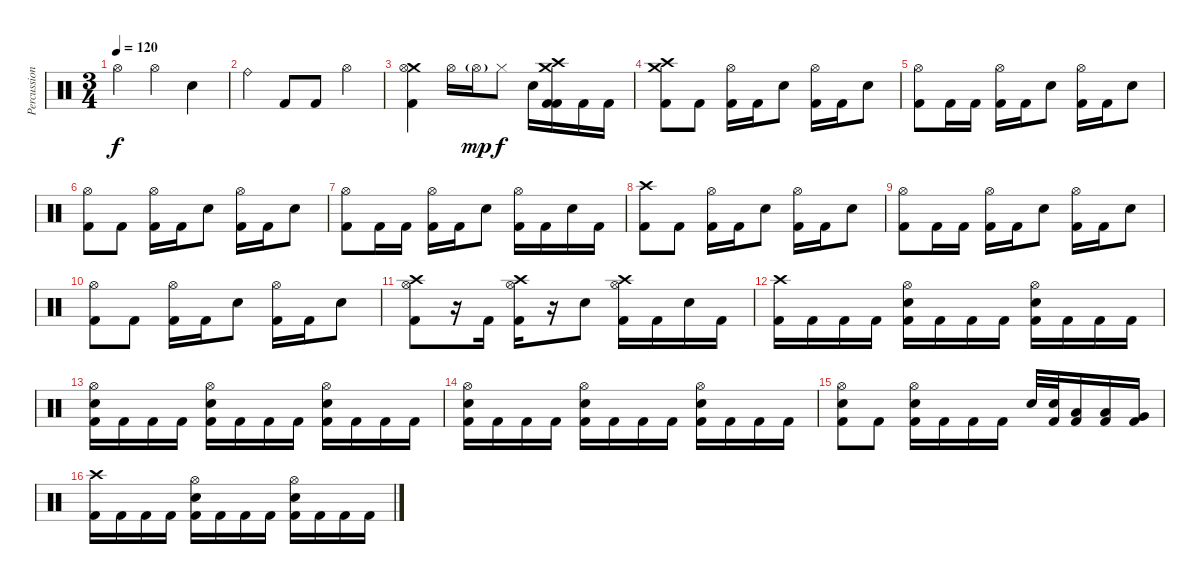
\track ("Percussion" "Percussion") {instrument percussion}
\staff {score}
\articulation defaults
\ts (3 4)
\tempo 120
\clef neutral
\ks c "Hi-Hat (open)"{t}.4{dy f} "Hi-Hat (open)".4 "Electric Snare (hit)".4
|
"Ride (bell)".4 "Kick (hit) 2".8 "Kick (hit) 2".8 "Hi-Hat (open)".4 |
("Crash medium (hit)" "Hi-Hat (open)"{t} "Kick (hit) 2").4 "Hi-Hat (open)".16 "Hi-Hat (open)"{g}.16{dy mp} "Hi-Hat (closed)".8{dy f} "Electric Snare (hit)".16 ("Crash high (hit)" "Crash medium (hit)" "Kick (hit) 2" "Kick (hit) 2").16 "Kick (hit) 2".16 "Kick (hit) 2".16 |
("Crash high (hit)" "Crash medium (hit)" "Kick (hit) 2").8 "Kick (hit) 2".8 ("Hi-Hat (open)" "Kick (hit) 2").16 "Kick (hit) 2".16 "Electric Snare (hit)".8 ("Hi-Hat (open)" "Kick (hit) 2").16 "Kick (hit) 2".16 "Electric Snare (hit)".8 |
("Hi-Hat (open)" "Kick (hit) 2").8 "Kick (hit) 2".16 "Kick (hit) 2".16 ("Hi-Hat (open)" "Kick (hit) 2").16 "Kick (hit) 2".16 "Electric Snare (hit)".8 ("Hi-Hat (open)" "Kick (hit) 2").16 "Kick (hit) 2".16 "Electric Snare (hit)".8 |
("Hi-Hat (open)" "Kick (hit) 2").8 "Kick (hit) 2".8 ("Hi-Hat (open)" "Kick (hit) 2").16 "Kick (hit) 2".16 "Electric Snare (hit)".8 ("Hi-Hat (open)" "Kick (hit) 2").16 "Kick (hit) 2".16 "Electric Snare (hit)".8 |
("Hi-Hat (open)" "Kick (hit) 2").8 "Kick (hit) 2".16 "Kick (hit) 2".16 ("Hi-Hat (open)" "Kick (hit) 2").16 "Kick (hit) 2".16 "Electric Snare (hit)".8 ("Hi-Hat (open)" "Kick (hit) 2").16 "Kick (hit) 2".16 "Electric Snare (hit)".16 "Kick (hit) 2".16 |
("Crash high (hit)" "Kick (hit) 2").8 "Kick (hit) 2".8 ("Hi-Hat (open)" "Kick (hit) 2").16 "Kick (hit) 2".16 "Electric Snare (hit)".8 ("Hi-Hat (open)" "Kick (hit) 2").16 "Kick (hit) 2".16 "Electric Snare (hit)".8 |
("Hi-Hat (open)" "Kick (hit) 2").8 "Kick (hit) 2".16 "Kick (hit) 2".16 ("Hi-Hat (open)" "Kick (hit) 2").16 "Kick (hit) 2".16 "Electric Snare (hit)".8 ("Hi-Hat (open)" "Kick (hit) 2").16 "Kick (hit) 2".16 "Electric Snare (hit)".8 |
("Hi-Hat (open)" "Kick (hit) 2").8 "Kick (hit) 2".8 ("Hi-Hat (open)" "Kick (hit) 2").16 "Kick (hit) 2".16 "Electric Snare (hit)".8 ("Hi-Hat (open)" "Kick (hit) 2").16 "Kick (hit) 2".16 "Electric Snare (hit)".8 |
("Crash high (hit)" "Hi-Hat (open)" "Kick (hit) 2").8 r.16 "Kick (hit) 2".16 ("Crash high (hit)" "Hi-Hat (open)" "Kick (hit) 2").16 r.16 "Electric Snare (hit)".8 ("Crash high (hit)" "Hi-Hat (open)" "Kick (hit) 2").16 "Kick (hit) 2".16 "Electric Snare (hit)".16 "Kick (hit) 2".16 |
("Crash high (hit)" "Kick (hit) 2").16 "Kick (hit) 2".16 "Kick (hit) 2".16 "Kick (hit) 2".16 ("Hi-Hat (open)" "Electric Snare (hit)" "Kick (hit) 2").16 "Kick (hit) 2".16 "Kick (hit) 2".16 "Kick (hit) 2".16 ("Hi-Hat (open)" "Electric Snare (hit)" "Kick (hit) 2").16 "Kick (hit) 2".16 "Kick (hit) 2".16 "Kick (hit) 2".16 |
("Hi-Hat (open)" "Electric Snare (hit)" "Kick (hit) 2").16 "Kick (hit) 2".16 "Kick (hit) 2".16 "Kick (hit) 2".16 ("Hi-Hat (open)" "Electric Snare (hit)" "Kick (hit) 2").16 "Kick (hit) 2".16 "Kick (hit) 2".16 "Kick (hit) 2".16 ("Hi-Hat (open)" "Electric Snare (hit)" "Kick (hit) 2").16 "Kick (hit) 2".16 "Kick (hit) 2".16 "Kick (hit) 2".16 |
("Hi-Hat (open)" "Electric Snare (hit)" "Kick (hit) 2").16 "Kick (hit) 2".16 "Kick (hit) 2".16 "Kick (hit) 2".16 ("Hi-Hat (open)" "Electric Snare (hit)" "Kick (hit) 2").16 "Kick (hit) 2".16 "Kick (hit) 2".16 "Kick (hit) 2".16 ("Hi-Hat (open)" "Electric Snare (hit)" "Kick (hit) 2").16 "Kick (hit) 2".16 "Kick (hit) 2".16 "Kick (hit) 2".16 |
("Hi-Hat (open)" "Electric Snare (hit)" "Kick (hit) 2").8 "Kick (hit) 2".8 ("Hi-Hat (open)" "Electric Snare (hit)" "Kick (hit) 2").16 "Kick (hit) 2".16 "Kick (hit) 2".16 "Kick (hit) 2".16 "Electric Snare (hit)".32 ("Electric Snare (hit)" "Kick (hit) 2").32 ("Low Tom (hit)" "Kick (hit) 2").16 ("Low Tom (hit)" "Kick (hit) 2").16 ("Very Low Tom (hit)" "Kick (hit) 2").16 |
("Crash high (hit)" "Kick (hit) 2").16 "Kick (hit) 2".16 "Kick (hit) 2".16 "Kick (hit) 2".16 ("Hi-Hat (open)" "Electric Snare (hit)" "Kick (hit) 2").16 "Kick (hit) 2".16 "Kick (hit) 2".16 "Kick (hit) 2".16 ("Hi-Hat (open)" "Electric Snare (hit)" "Kick (hit) 2").16 "Kick (hit) 2".16 "Kick (hit) 2".16 "Kick (hit) 2".16
